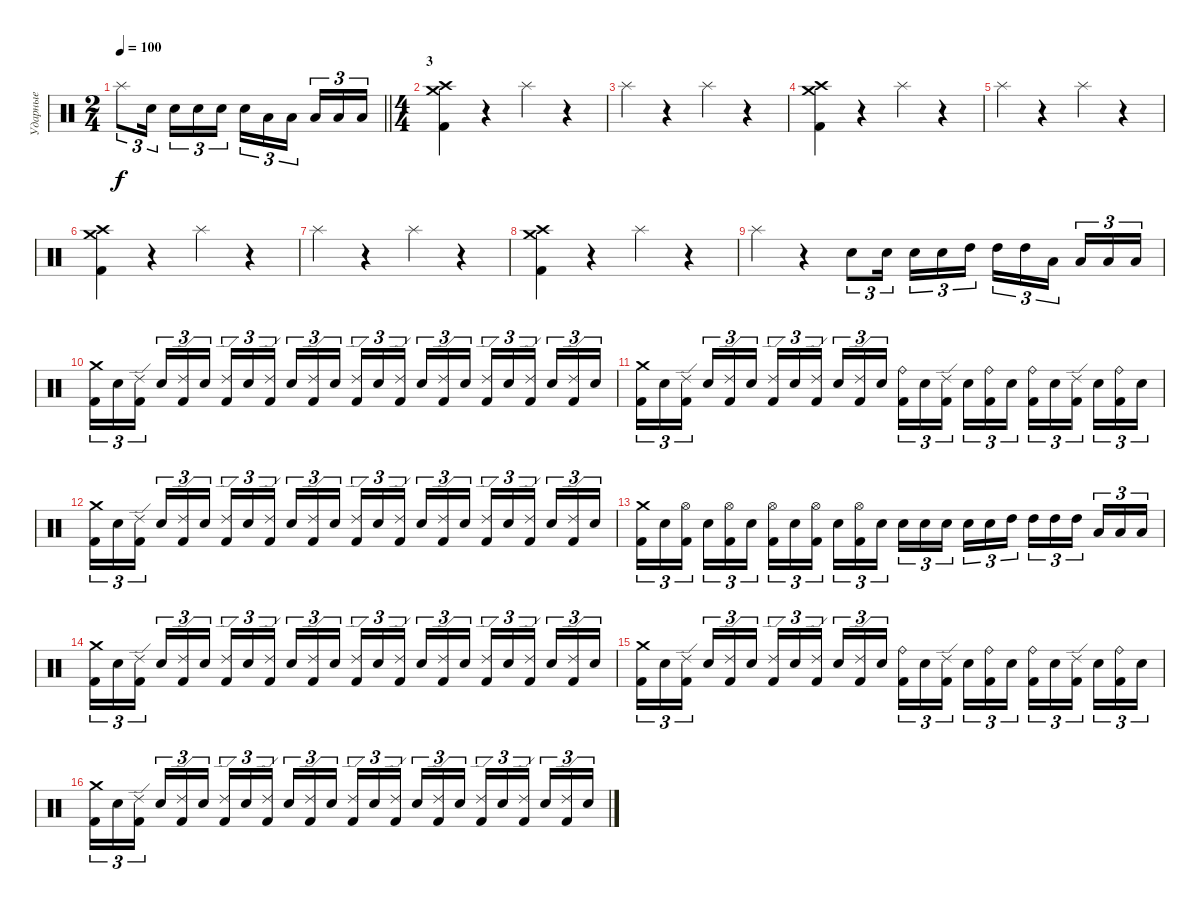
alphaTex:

\track ("Ударные" "Ударные") {instrument percussion}
\staff {score}
\articulation defaults
\ts (2 4)
\tempo 100
\clef neutral
\barLineRight lightlight
\ks c "Splash (hit)".8{tu (3 2) dy f} "Electric Snare (hit)".16{tu (3 2) beam splitsecondary} "Electric Snare (hit)".16{tu (3 2)} "Electric Snare (hit)".16{tu (3 2)} "Electric Snare (hit)".16{tu (3 2)} "Electric Snare (hit)".16{tu (3 2)} "Low Tom (hit)".16{tu (3 2)} "Low Tom (hit)".16{tu (3 2) beam splitsecondary} "Low Tom (hit)".16{tu (3 2)} "Low Floor Tom (hit)".16{tu (3 2)} "Low Floor Tom (hit)".16{tu (3 2)}
|
\ts (4 4)
\section ("" "3")
("Crash high (hit)" "Crash medium (hit)" "Kick (hit) 2").4 r.4 "Splash (hit)".4 r.4 |
"Splash (hit)".4 r.4 "Splash (hit)".4 r.4 |
("Crash high (hit)" "Crash medium (hit)" "Kick (hit) 2").4 r.4 "Splash (hit)".4 r.4 |
"Splash (hit)".4 r.4 "Splash (hit)".4 r.4 |
("Crash high (hit)" "Crash medium (hit)" "Kick (hit) 2").4 r.4 "Splash (hit)".4 r.4 |
"Splash (hit)".4 r.4 "Splash (hit)".4 r.4 |
("Crash high (hit)" "Crash medium (hit)" "Kick (hit) 2").4 r.4 "Splash (hit)".4 r.4 |
"Splash (hit)".4 r.4 "Electric Snare (hit)".8{tu (3 2)} "Electric Snare (hit)".16{tu (3 2) beam splitsecondary} "Electric Snare (hit)".16{tu (3 2)} "Electric Snare (hit)".16{tu (3 2)} "High Tom (hit)".16{tu (3 2)} "High Tom (hit)".16{tu (3 2)} "High Tom (hit)".16{tu (3 2)} "Low Tom (hit)".16{tu (3 2) beam splitsecondary} "Low Tom (hit)".16{tu (3 2)} "Low Floor Tom (hit)".16{tu (3 2)} "Low Floor Tom (hit)".16{tu (3 2)} |
("Crash medium (hit)" "Kick (hit) 2").16{tu (3 2)} "Electric Snare (hit)".16{tu (3 2)} ("Ride (edge) 2" "Kick (hit) 2").16{tu (3 2) beam splitsecondary} "Electric Snare (hit)".16{tu (3 2)} ("Ride (edge) 2" "Kick (hit) 2").16{tu (3 2)} "Electric Snare (hit)".16{tu (3 2)} ("Ride (edge) 2" "Kick (hit) 2").16{tu (3 2)} "Electric Snare (hit)".16{tu (3 2)} ("Ride (edge) 2" "Kick (hit) 2").16{tu (3 2) beam splitsecondary} "Electric Snare (hit)".16{tu (3 2)} ("Ride (edge) 2" "Kick (hit) 2").16{tu (3 2)} "Electric Snare (hit)".16{tu (3 2)} ("Ride (edge) 2" "Kick (hit) 2").16{tu (3 2)} "Electric Snare (hit)".16{tu (3 2)} ("Ride (edge) 2" "Kick (hit) 2").16{tu (3 2) beam splitsecondary} "Electric Snare (hit)".16{tu (3 2)} ("Ride (edge) 2" "Kick (hit) 2").16{tu (3 2)} "Electric Snare (hit)".16{tu (3 2)} ("Ride (edge) 2" "Kick (hit) 2").16{tu (3 2)} "Electric Snare (hit)".16{tu (3 2)} ("Ride (edge) 2" "Kick (hit) 2").16{tu (3 2) beam splitsecondary} "Electric Snare (hit)".16{tu (3 2)} ("Ride (edge) 2" "Kick (hit) 2").16{tu (3 2)} "Electric Snare (hit)".16{tu (3 2)} |
("Crash medium (hit)" "Kick (hit) 2").16{tu (3 2)} "Electric Snare (hit)".16{tu (3 2)} ("Ride (edge) 2" "Kick (hit) 2").16{tu (3 2) beam splitsecondary} "Electric Snare (hit)".16{tu (3 2)} ("Ride (edge) 2" "Kick (hit) 2").16{tu (3 2)} "Electric Snare (hit)".16{tu (3 2)} ("Ride (edge) 2" "Kick (hit) 2").16{tu (3 2)} "Electric Snare (hit)".16{tu (3 2)} ("Ride (edge) 2" "Kick (hit) 2").16{tu (3 2) beam splitsecondary} "Electric Snare (hit)".16{tu (3 2)} ("Ride (edge) 2" "Kick (hit) 2").16{tu (3 2)} "Electric Snare (hit)".16{tu (3 2)} ("Ride (bell)" "Kick (hit) 2").16{tu (3 2)} "Electric Snare (hit)".16{tu (3 2)} ("Ride (edge) 2" "Kick (hit) 2").16{tu (3 2) beam splitsecondary} "Electric Snare (hit)".16{tu (3 2)} ("Ride (bell)" "Kick (hit) 2").16{tu (3 2)} "Electric Snare (hit)".16{tu (3 2)} ("Ride (bell)" "Kick (hit) 2").16{tu (3 2)} "Electric Snare (hit)".16{tu (3 2)} ("Ride (edge) 2" "Kick (hit) 2").16{tu (3 2) beam splitsecondary} "Electric Snare (hit)".16{tu (3 2)} ("Ride (bell)" "Kick (hit) 2").16{tu (3 2)} "Electric Snare (hit)".16{tu (3 2)} |
("Crash medium (hit)" "Kick (hit) 2").16{tu (3 2)} "Electric Snare (hit)".16{tu (3 2)} ("Ride (edge) 2" "Kick (hit) 2").16{tu (3 2) beam splitsecondary} "Electric Snare (hit)".16{tu (3 2)} ("Ride (edge) 2" "Kick (hit) 2").16{tu (3 2)} "Electric Snare (hit)".16{tu (3 2)} ("Ride (edge) 2" "Kick (hit) 2").16{tu (3 2)} "Electric Snare (hit)".16{tu (3 2)} ("Ride (edge) 2" "Kick (hit) 2").16{tu (3 2) beam splitsecondary} "Electric Snare (hit)".16{tu (3 2)} ("Ride (edge) 2" "Kick (hit) 2").16{tu (3 2)} "Electric Snare (hit)".16{tu (3 2)} ("Ride (edge) 2" "Kick (hit) 2").16{tu (3 2)} "Electric Snare (hit)".16{tu (3 2)} ("Ride (edge) 2" "Kick (hit) 2").16{tu (3 2) beam splitsecondary} "Electric Snare (hit)".16{tu (3 2)} ("Ride (edge) 2" "Kick (hit) 2").16{tu (3 2)} "Electric Snare (hit)".16{tu (3 2)} ("Ride (edge) 2" "Kick (hit) 2").16{tu (3 2)} "Electric Snare (hit)".16{tu (3 2)} ("Ride (edge) 2" "Kick (hit) 2").16{tu (3 2) beam splitsecondary} "Electric Snare (hit)".16{tu (3 2)} ("Ride (edge) 2" "Kick (hit) 2").16{tu (3 2)} "Electric Snare (hit)".16{tu (3 2)} |
("Crash medium (hit)" "Kick (hit) 2").16{tu (3 2)} "Electric Snare (hit)".16{tu (3 2)} ("Hi-Hat (open)" "Kick (hit) 2").16{tu (3 2) beam splitsecondary} "Electric Snare (hit)".16{tu (3 2)} ("Hi-Hat (open)" "Kick (hit) 2").16{tu (3 2)} "Electric Snare (hit)".16{tu (3 2)} ("Hi-Hat (open)" "Kick (hit) 2").16{tu (3 2)} "Electric Snare (hit)".16{tu (3 2)} ("Hi-Hat (open)" "Kick (hit) 2").16{tu (3 2) beam splitsecondary} "Electric Snare (hit)".16{tu (3 2)} ("Hi-Hat (open)" "Kick (hit) 2").16{tu (3 2)} "Electric Snare (hit)".16{tu (3 2)} "Electric Snare (hit)".16{tu (3 2)} "Electric Snare (hit)".16{tu (3 2)} "Electric Snare (hit)".16{tu (3 2) beam splitsecondary} "Electric Snare (hit)".16{tu (3 2)} "Electric Snare (hit)".16{tu (3 2)} "High Tom (hit)".16{tu (3 2)} "High Tom (hit)".16{tu (3 2)} "High Tom (hit)".16{tu (3 2)} "High Tom (hit)".16{tu (3 2) beam splitsecondary} "Low Tom (hit)".16{tu (3 2)} "Low Tom (hit)".16{tu (3 2)} "Low Tom (hit)".16{tu (3 2)} |
("Crash medium (hit)" "Kick (hit) 2").16{tu (3 2)} "Electric Snare (hit)".16{tu (3 2)} ("Ride (edge) 2" "Kick (hit) 2").16{tu (3 2) beam splitsecondary} "Electric Snare (hit)".16{tu (3 2)} ("Ride (edge) 2" "Kick (hit) 2").16{tu (3 2)} "Electric Snare (hit)".16{tu (3 2)} ("Ride (edge) 2" "Kick (hit) 2").16{tu (3 2)} "Electric Snare (hit)".16{tu (3 2)} ("Ride (edge) 2" "Kick (hit) 2").16{tu (3 2) beam splitsecondary} "Electric Snare (hit)".16{tu (3 2)} ("Ride (edge) 2" "Kick (hit) 2").16{tu (3 2)} "Electric Snare (hit)".16{tu (3 2)} ("Ride (edge) 2" "Kick (hit) 2").16{tu (3 2)} "Electric Snare (hit)".16{tu (3 2)} ("Ride (edge) 2" "Kick (hit) 2").16{tu (3 2) beam splitsecondary} "Electric Snare (hit)".16{tu (3 2)} ("Ride (edge) 2" "Kick (hit) 2").16{tu (3 2)} "Electric Snare (hit)".16{tu (3 2)} ("Ride (edge) 2" "Kick (hit) 2").16{tu (3 2)} "Electric Snare (hit)".16{tu (3 2)} ("Ride (edge) 2" "Kick (hit) 2").16{tu (3 2) beam splitsecondary} "Electric Snare (hit)".16{tu (3 2)} ("Ride (edge) 2" "Kick (hit) 2").16{tu (3 2)} "Electric Snare (hit)".16{tu (3 2)} |
("Crash medium (hit)" "Kick (hit) 2").16{tu (3 2)} "Electric Snare (hit)".16{tu (3 2)} ("Ride (edge) 2" "Kick (hit) 2").16{tu (3 2) beam splitsecondary} "Electric Snare (hit)".16{tu (3 2)} ("Ride (edge) 2" "Kick (hit) 2").16{tu (3 2)} "Electric Snare (hit)".16{tu (3 2)} ("Ride (edge) 2" "Kick (hit) 2").16{tu (3 2)} "Electric Snare (hit)".16{tu (3 2)} ("Ride (edge) 2" "Kick (hit) 2").16{tu (3 2) beam splitsecondary} "Electric Snare (hit)".16{tu (3 2)} ("Ride (edge) 2" "Kick (hit) 2").16{tu (3 2)} "Electric Snare (hit)".16{tu (3 2)} ("Ride (bell)" "Kick (hit) 2").16{tu (3 2)} "Electric Snare (hit)".16{tu (3 2)} ("Ride (edge) 2" "Kick (hit) 2").16{tu (3 2) beam splitsecondary} "Electric Snare (hit)".16{tu (3 2)} ("Ride (bell)" "Kick (hit) 2").16{tu (3 2)} "Electric Snare (hit)".16{tu (3 2)} ("Ride (bell)" "Kick (hit) 2").16{tu (3 2)} "Electric Snare (hit)".16{tu (3 2)} ("Ride (edge) 2" "Kick (hit) 2").16{tu (3 2) beam splitsecondary} "Electric Snare (hit)".16{tu (3 2)} ("Ride (bell)" "Kick (hit) 2").16{tu (3 2)} "Electric Snare (hit)".16{tu (3 2)} |
("Crash medium (hit)" "Kick (hit) 2").16{tu (3 2)} "Electric Snare (hit)".16{tu (3 2)} ("Ride (edge) 2" "Kick (hit) 2").16{tu (3 2) beam splitsecondary} "Electric Snare (hit)".16{tu (3 2)} ("Ride (edge) 2" "Kick (hit) 2").16{tu (3 2)} "Electric Snare (hit)".16{tu (3 2)} ("Ride (edge) 2" "Kick (hit) 2").16{tu (3 2)} "Electric Snare (hit)".16{tu (3 2)} ("Ride (edge) 2" "Kick (hit) 2").16{tu (3 2) beam splitsecondary} "Electric Snare (hit)".16{tu (3 2)} ("Ride (edge) 2" "Kick (hit) 2").16{tu (3 2)} "Electric Snare (hit)".16{tu (3 2)} ("Ride (edge) 2" "Kick (hit) 2").16{tu (3 2)} "Electric Snare (hit)".16{tu (3 2)} ("Ride (edge) 2" "Kick (hit) 2").16{tu (3 2) beam splitsecondary} "Electric Snare (hit)".16{tu (3 2)} ("Ride (edge) 2" "Kick (hit) 2").16{tu (3 2)} "Electric Snare (hit)".16{tu (3 2)} ("Ride (edge) 2" "Kick (hit) 2").16{tu (3 2)} "Electric Snare (hit)".16{tu (3 2)} ("Ride (edge) 2" "Kick (hit) 2").16{tu (3 2) beam splitsecondary} "Electric Snare (hit)".16{tu (3 2)} ("Ride (edge) 2" "Kick (hit) 2").16{tu (3 2)} "Electric Snare (hit)".16{tu (3 2)}
